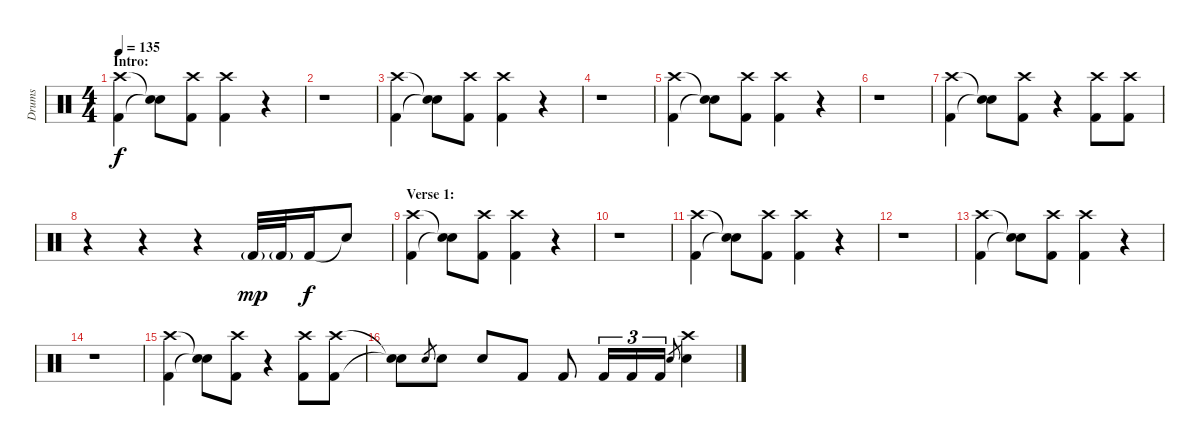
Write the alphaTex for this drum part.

\track ("Drums" "Drums") {instrument percussion}
\staff {score}
\articulation defaults
\ts (4 4)
\section ("" "Intro:")
\tempo 135
\clef neutral
\ks c
("Crash high (hit)" "Kick (hit) 2").4{dy f volume 16} ("Snare (hit)"{t} "Snare (hit)"{t}).8 ("Crash high (hit)" "Kick (hit) 2").8 ("Crash high (hit)" "Kick (hit) 2").4 r.4 |
r.1 |
("Crash high (hit)" "Kick (hit) 2").4 ("Snare (hit)"{t} "Snare (hit)"{t}).8 ("Crash high (hit)" "Kick (hit) 2").8 ("Crash high (hit)" "Kick (hit) 2").4 r.4 |
r.1 |
("Crash high (hit)" "Kick (hit) 2").4 ("Snare (hit)"{t} "Snare (hit)"{t}).8 ("Crash high (hit)" "Kick (hit) 2").8 ("Crash high (hit)" "Kick (hit) 2").4 r.4 |
r.1 |
("Crash high (hit)" "Kick (hit) 2").4 ("Snare (hit)"{t} "Snare (hit)"{t}).8 ("Crash high (hit)" "Kick (hit) 2").8 r.4 ("Crash high (hit)" "Kick (hit) 2").8 ("Crash high (hit)" "Kick (hit) 2").8 |
r.4 r.4 r.4 "Kick (hit) 2"{g}.32{dy mp} "Kick (hit) 2"{g}.32 "Kick (hit) 2".16{dy f} "Snare (hit)"{t}.8 |
\section ("" "Verse 1:")
("Crash high (hit)" "Kick (hit) 2").4 ("Snare (hit)"{t} "Snare (hit)"{t}).8 ("Crash high (hit)" "Kick (hit) 2").8 ("Crash high (hit)" "Kick (hit) 2").4 r.4 |
r.1 |
("Crash high (hit)" "Kick (hit) 2").4 ("Snare (hit)"{t} "Snare (hit)"{t}).8 ("Crash high (hit)" "Kick (hit) 2").8 ("Crash high (hit)" "Kick (hit) 2").4 r.4 |
r.1 |
("Crash high (hit)" "Kick (hit) 2").4 ("Snare (hit)"{t} "Snare (hit)"{t}).8 ("Crash high (hit)" "Kick (hit) 2").8 ("Crash high (hit)" "Kick (hit) 2").4 r.4 |
r.1 |
("Crash high (hit)" "Kick (hit) 2").4 ("Snare (hit)"{t} "Snare (hit)"{t}).8 ("Crash high (hit)" "Kick (hit) 2").8 r.4 ("Crash high (hit)" "Kick (hit) 2").8 ("Crash high (hit)" "Kick (hit) 2").8 |
("Snare (hit)"{t} "Snare (hit)"{t}).8 "Electric Snare (hit)".8{gr} "Electric Snare (hit)".8 "Electric Snare (hit)".8 "Kick (hit) 2".8 "Kick (hit) 2".8 "Kick (hit) 2".16{tu (3 2)} "Kick (hit) 2".16{tu (3 2)} "Kick (hit) 2".16{tu (3 2)} "Electric Snare (hit)".8{gr} ("Crash high (hit)" "Electric Snare (hit)").4
